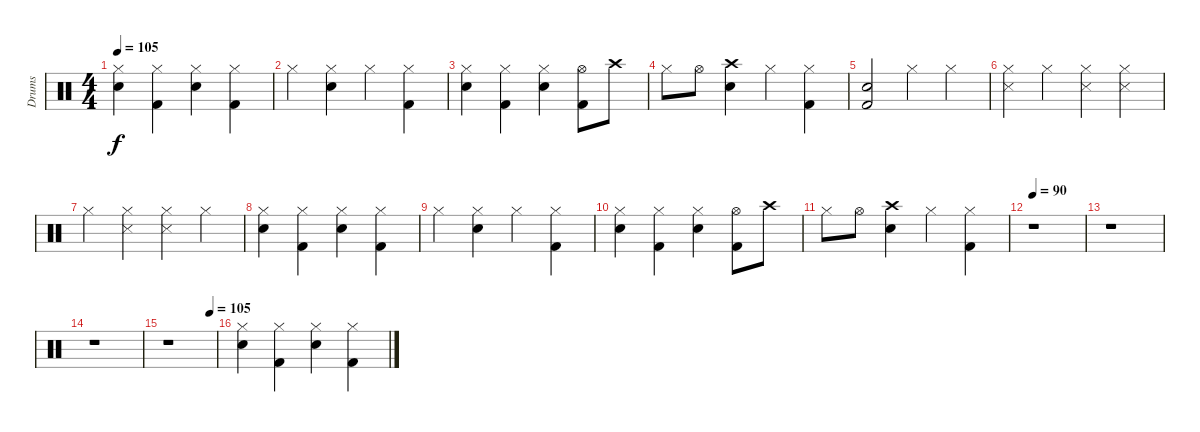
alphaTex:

\track ("Drums" "Drums") {instrument percussion}
\staff {score}
\articulation defaults
\ts (4 4)
\tempo 105
\clef neutral
\ks c
("Hi-Hat (closed)" "Electric Snare (hit)").4{dy f} ("Hi-Hat (closed)" "Kick (hit) 2").4 ("Hi-Hat (closed)" "Electric Snare (hit)").4 ("Hi-Hat (closed)" "Kick (hit) 2").4 |
"Hi-Hat (closed)".4 ("Hi-Hat (closed)" "Electric Snare (hit)").4 "Hi-Hat (closed)".4 ("Hi-Hat (closed)" "Kick (hit) 2").4 |
("Hi-Hat (closed)" "Electric Snare (hit)").4 ("Hi-Hat (closed)" "Kick (hit) 2").4 ("Hi-Hat (closed)" "Electric Snare (hit)").4 ("Hi-Hat (open)" "Kick (hit) 2").8 "Crash high (hit)".8 |
"Hi-Hat (closed)".8 "Hi-Hat (open)".8 ("Crash high (hit)" "Electric Snare (hit)").4 "Hi-Hat (closed)".4 ("Hi-Hat (closed)" "Kick (hit) 2").4 |
("Snare (hit) 2" "Kick (hit) 2").2 "Hi-Hat (closed)".4 "Hi-Hat (closed)".4 |
("Hi-Hat (closed)" "Metronome (hit)").4 "Hi-Hat (closed)".4 ("Hi-Hat (closed)" "Metronome (hit)").4 ("Hi-Hat (closed)" "Metronome (hit)").4 |
"Hi-Hat (closed)".4 ("Hi-Hat (closed)" "Metronome (hit)").4 ("Hi-Hat (closed)" "Metronome (hit)").4 "Hi-Hat (closed)".4 |
("Hi-Hat (closed)" "Electric Snare (hit)").4 ("Hi-Hat (closed)" "Kick (hit) 2").4 ("Hi-Hat (closed)" "Electric Snare (hit)").4 ("Hi-Hat (closed)" "Kick (hit) 2").4 |
"Hi-Hat (closed)".4 ("Hi-Hat (closed)" "Electric Snare (hit)").4 "Hi-Hat (closed)".4 ("Hi-Hat (closed)" "Kick (hit) 2").4 |
("Hi-Hat (closed)" "Electric Snare (hit)").4 ("Hi-Hat (closed)" "Kick (hit) 2").4 ("Hi-Hat (closed)" "Electric Snare (hit)").4 ("Hi-Hat (open)" "Kick (hit) 2").8 "Crash high (hit)".8 |
"Hi-Hat (closed)".8 "Hi-Hat (open)".8 ("Crash high (hit)" "Electric Snare (hit)").4 "Hi-Hat (closed)".4 ("Hi-Hat (closed)" "Kick (hit) 2").4 |
\tempo 90
r.1 |
r.1 |
r.1 |
\tempo (105 0.875)
r.1 |
("Hi-Hat (closed)" "Electric Snare (hit)").4 ("Hi-Hat (closed)" "Kick (hit) 2").4 ("Hi-Hat (closed)" "Electric Snare (hit)").4 ("Hi-Hat (closed)" "Kick (hit) 2").4
